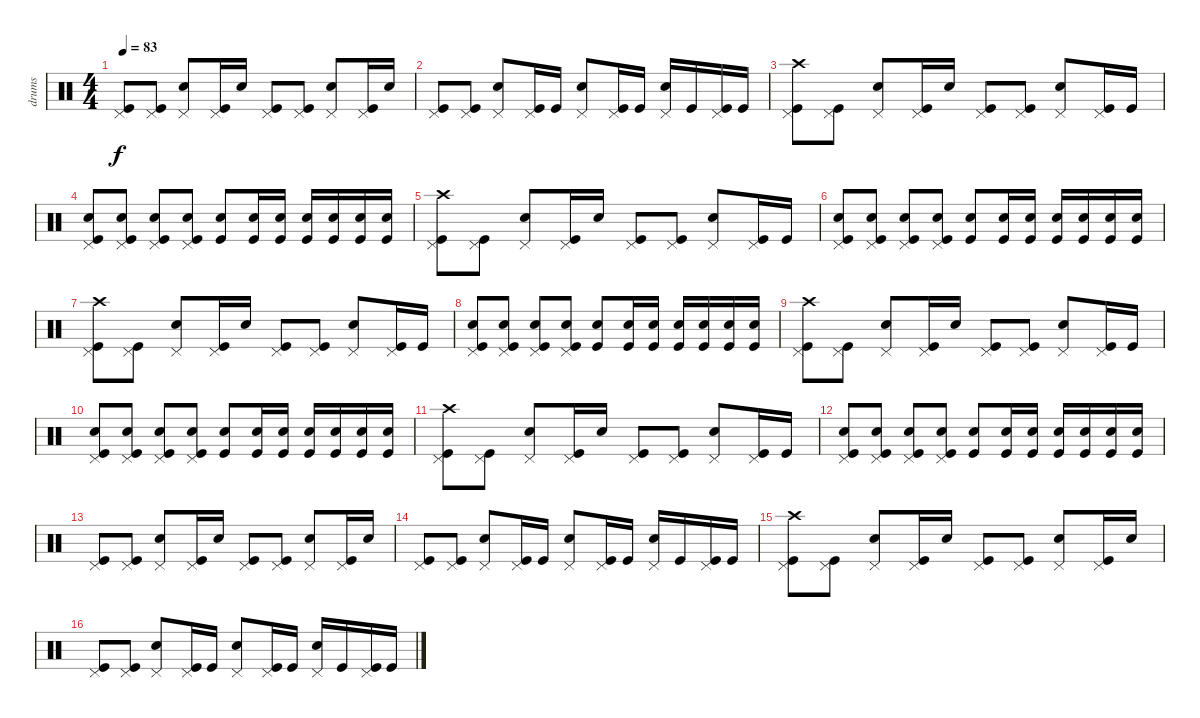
\track ("drums" "drums") {instrument percussion}
\staff {score}
\articulation defaults
\ts (4 4)
\tempo 83
\clef neutral
\ks c
("Pedal Hi-Hat (hit)" "Kick (hit)").8{dy f} ("Pedal Hi-Hat (hit)" "Kick (hit)").8 ("Pedal Hi-Hat (hit)" "Snare (hit) 2").8 ("Pedal Hi-Hat (hit)" "Kick (hit)").16 "Snare (hit) 2".16 ("Pedal Hi-Hat (hit)" "Kick (hit)").8 ("Pedal Hi-Hat (hit)" "Kick (hit)").8 ("Pedal Hi-Hat (hit)" "Snare (hit) 2").8 ("Pedal Hi-Hat (hit)" "Kick (hit)").16 "Snare (hit) 2".16 |
("Pedal Hi-Hat (hit)" "Kick (hit)").8 ("Pedal Hi-Hat (hit)" "Kick (hit)").8 ("Pedal Hi-Hat (hit)" "Snare (hit) 2").8 ("Pedal Hi-Hat (hit)" "Kick (hit)").16 "Kick (hit)".16 ("Pedal Hi-Hat (hit)" "Snare (hit) 2").8 ("Pedal Hi-Hat (hit)" "Kick (hit)").16 "Kick (hit)".16 ("Pedal Hi-Hat (hit)" "Snare (hit) 2").16 "Kick (hit)".16 ("Pedal Hi-Hat (hit)" "Kick (hit)").16 "Kick (hit)".16 |
("Crash high (hit)" "Pedal Hi-Hat (hit)" "Kick (hit)").8 ("Pedal Hi-Hat (hit)" "Kick (hit)").8 ("Pedal Hi-Hat (hit)" "Snare (hit) 2").8 ("Pedal Hi-Hat (hit)" "Kick (hit)").16 "Snare (hit) 2".16 ("Pedal Hi-Hat (hit)" "Kick (hit)").8 ("Pedal Hi-Hat (hit)" "Kick (hit)").8 ("Pedal Hi-Hat (hit)" "Snare (hit) 2").8 ("Pedal Hi-Hat (hit)" "Kick (hit)").16 "Kick (hit)".16 |
("Kick (hit)" "Snare (hit) 2" "Pedal Hi-Hat (hit)").8 ("Kick (hit)" "Snare (hit) 2" "Pedal Hi-Hat (hit)").8 ("Kick (hit)" "Pedal Hi-Hat (hit)" "Snare (hit) 2").8 ("Kick (hit)" "Snare (hit) 2" "Pedal Hi-Hat (hit)").8 ("Kick (hit)" "Snare (hit) 2").8 ("Kick (hit)" "Snare (hit) 2").16 ("Kick (hit)" "Snare (hit) 2").16 ("Kick (hit)" "Snare (hit) 2").16 ("Kick (hit)" "Snare (hit) 2").16 ("Kick (hit)" "Snare (hit) 2").16 ("Kick (hit)" "Snare (hit) 2").16 |
("Crash high (hit)" "Pedal Hi-Hat (hit)" "Kick (hit)").8 ("Pedal Hi-Hat (hit)" "Kick (hit)").8 ("Pedal Hi-Hat (hit)" "Snare (hit) 2").8 ("Pedal Hi-Hat (hit)" "Kick (hit)").16 "Snare (hit) 2".16 ("Pedal Hi-Hat (hit)" "Kick (hit)").8 ("Pedal Hi-Hat (hit)" "Kick (hit)").8 ("Pedal Hi-Hat (hit)" "Snare (hit) 2").8 ("Pedal Hi-Hat (hit)" "Kick (hit)").16 "Kick (hit)".16 |
("Kick (hit)" "Snare (hit) 2" "Pedal Hi-Hat (hit)").8 ("Kick (hit)" "Snare (hit) 2" "Pedal Hi-Hat (hit)").8 ("Kick (hit)" "Pedal Hi-Hat (hit)" "Snare (hit) 2").8 ("Kick (hit)" "Snare (hit) 2" "Pedal Hi-Hat (hit)").8 ("Kick (hit)" "Snare (hit) 2").8 ("Kick (hit)" "Snare (hit) 2").16 ("Kick (hit)" "Snare (hit) 2").16 ("Kick (hit)" "Snare (hit) 2").16 ("Kick (hit)" "Snare (hit) 2").16 ("Kick (hit)" "Snare (hit) 2").16 ("Kick (hit)" "Snare (hit) 2").16 |
("Crash high (hit)" "Pedal Hi-Hat (hit)" "Kick (hit)").8 ("Pedal Hi-Hat (hit)" "Kick (hit)").8 ("Pedal Hi-Hat (hit)" "Snare (hit) 2").8 ("Pedal Hi-Hat (hit)" "Kick (hit)").16 "Snare (hit) 2".16 ("Pedal Hi-Hat (hit)" "Kick (hit)").8 ("Pedal Hi-Hat (hit)" "Kick (hit)").8 ("Pedal Hi-Hat (hit)" "Snare (hit) 2").8 ("Pedal Hi-Hat (hit)" "Kick (hit)").16 "Kick (hit)".16 |
("Kick (hit)" "Snare (hit) 2" "Pedal Hi-Hat (hit)").8 ("Kick (hit)" "Snare (hit) 2" "Pedal Hi-Hat (hit)").8 ("Kick (hit)" "Pedal Hi-Hat (hit)" "Snare (hit) 2").8 ("Kick (hit)" "Snare (hit) 2" "Pedal Hi-Hat (hit)").8 ("Kick (hit)" "Snare (hit) 2").8 ("Kick (hit)" "Snare (hit) 2").16 ("Kick (hit)" "Snare (hit) 2").16 ("Kick (hit)" "Snare (hit) 2").16 ("Kick (hit)" "Snare (hit) 2").16 ("Kick (hit)" "Snare (hit) 2").16 ("Kick (hit)" "Snare (hit) 2").16 |
("Crash high (hit)" "Pedal Hi-Hat (hit)" "Kick (hit)").8 ("Pedal Hi-Hat (hit)" "Kick (hit)").8 ("Pedal Hi-Hat (hit)" "Snare (hit) 2").8 ("Pedal Hi-Hat (hit)" "Kick (hit)").16 "Snare (hit) 2".16 ("Pedal Hi-Hat (hit)" "Kick (hit)").8 ("Pedal Hi-Hat (hit)" "Kick (hit)").8 ("Pedal Hi-Hat (hit)" "Snare (hit) 2").8 ("Pedal Hi-Hat (hit)" "Kick (hit)").16 "Kick (hit)".16 |
("Kick (hit)" "Snare (hit) 2" "Pedal Hi-Hat (hit)").8 ("Kick (hit)" "Snare (hit) 2" "Pedal Hi-Hat (hit)").8 ("Kick (hit)" "Pedal Hi-Hat (hit)" "Snare (hit) 2").8 ("Kick (hit)" "Snare (hit) 2" "Pedal Hi-Hat (hit)").8 ("Kick (hit)" "Snare (hit) 2").8 ("Kick (hit)" "Snare (hit) 2").16 ("Kick (hit)" "Snare (hit) 2").16 ("Kick (hit)" "Snare (hit) 2").16 ("Kick (hit)" "Snare (hit) 2").16 ("Kick (hit)" "Snare (hit) 2").16 ("Kick (hit)" "Snare (hit) 2").16 |
("Crash high (hit)" "Pedal Hi-Hat (hit)" "Kick (hit)").8 ("Pedal Hi-Hat (hit)" "Kick (hit)").8 ("Pedal Hi-Hat (hit)" "Snare (hit) 2").8 ("Pedal Hi-Hat (hit)" "Kick (hit)").16 "Snare (hit) 2".16 ("Pedal Hi-Hat (hit)" "Kick (hit)").8 ("Pedal Hi-Hat (hit)" "Kick (hit)").8 ("Pedal Hi-Hat (hit)" "Snare (hit) 2").8 ("Pedal Hi-Hat (hit)" "Kick (hit)").16 "Kick (hit)".16 |
("Kick (hit)" "Snare (hit) 2" "Pedal Hi-Hat (hit)").8 ("Kick (hit)" "Snare (hit) 2" "Pedal Hi-Hat (hit)").8 ("Kick (hit)" "Pedal Hi-Hat (hit)" "Snare (hit) 2").8 ("Kick (hit)" "Snare (hit) 2" "Pedal Hi-Hat (hit)").8 ("Kick (hit)" "Snare (hit) 2").8 ("Kick (hit)" "Snare (hit) 2").16 ("Kick (hit)" "Snare (hit) 2").16 ("Kick (hit)" "Snare (hit) 2").16 ("Kick (hit)" "Snare (hit) 2").16 ("Kick (hit)" "Snare (hit) 2").16 ("Kick (hit)" "Snare (hit) 2").16 |
("Pedal Hi-Hat (hit)" "Kick (hit)").8 ("Pedal Hi-Hat (hit)" "Kick (hit)").8 ("Pedal Hi-Hat (hit)" "Snare (hit) 2").8 ("Pedal Hi-Hat (hit)" "Kick (hit)").16 "Snare (hit) 2".16 ("Pedal Hi-Hat (hit)" "Kick (hit)").8 ("Pedal Hi-Hat (hit)" "Kick (hit)").8 ("Pedal Hi-Hat (hit)" "Snare (hit) 2").8 ("Pedal Hi-Hat (hit)" "Kick (hit)").16 "Snare (hit) 2".16 |
("Pedal Hi-Hat (hit)" "Kick (hit)").8 ("Pedal Hi-Hat (hit)" "Kick (hit)").8 ("Pedal Hi-Hat (hit)" "Snare (hit) 2").8 ("Pedal Hi-Hat (hit)" "Kick (hit)").16 "Kick (hit)".16 ("Pedal Hi-Hat (hit)" "Snare (hit) 2").8 ("Pedal Hi-Hat (hit)" "Kick (hit)").16 "Kick (hit)".16 ("Pedal Hi-Hat (hit)" "Snare (hit) 2").16 "Kick (hit)".16 ("Pedal Hi-Hat (hit)" "Kick (hit)").16 "Kick (hit)".16 |
("Crash high (hit)" "Pedal Hi-Hat (hit)" "Kick (hit)").8 ("Pedal Hi-Hat (hit)" "Kick (hit)").8 ("Pedal Hi-Hat (hit)" "Snare (hit) 2").8 ("Pedal Hi-Hat (hit)" "Kick (hit)").16 "Snare (hit) 2".16 ("Pedal Hi-Hat (hit)" "Kick (hit)").8 ("Pedal Hi-Hat (hit)" "Kick (hit)").8 ("Pedal Hi-Hat (hit)" "Snare (hit) 2").8 ("Pedal Hi-Hat (hit)" "Kick (hit)").16 "Snare (hit) 2".16 |
("Pedal Hi-Hat (hit)" "Kick (hit)").8 ("Pedal Hi-Hat (hit)" "Kick (hit)").8 ("Pedal Hi-Hat (hit)" "Snare (hit) 2").8 ("Pedal Hi-Hat (hit)" "Kick (hit)").16 "Kick (hit)".16 ("Pedal Hi-Hat (hit)" "Snare (hit) 2").8 ("Pedal Hi-Hat (hit)" "Kick (hit)").16 "Kick (hit)".16 ("Pedal Hi-Hat (hit)" "Snare (hit) 2").16 "Kick (hit)".16 ("Pedal Hi-Hat (hit)" "Kick (hit)").16 "Kick (hit)".16
